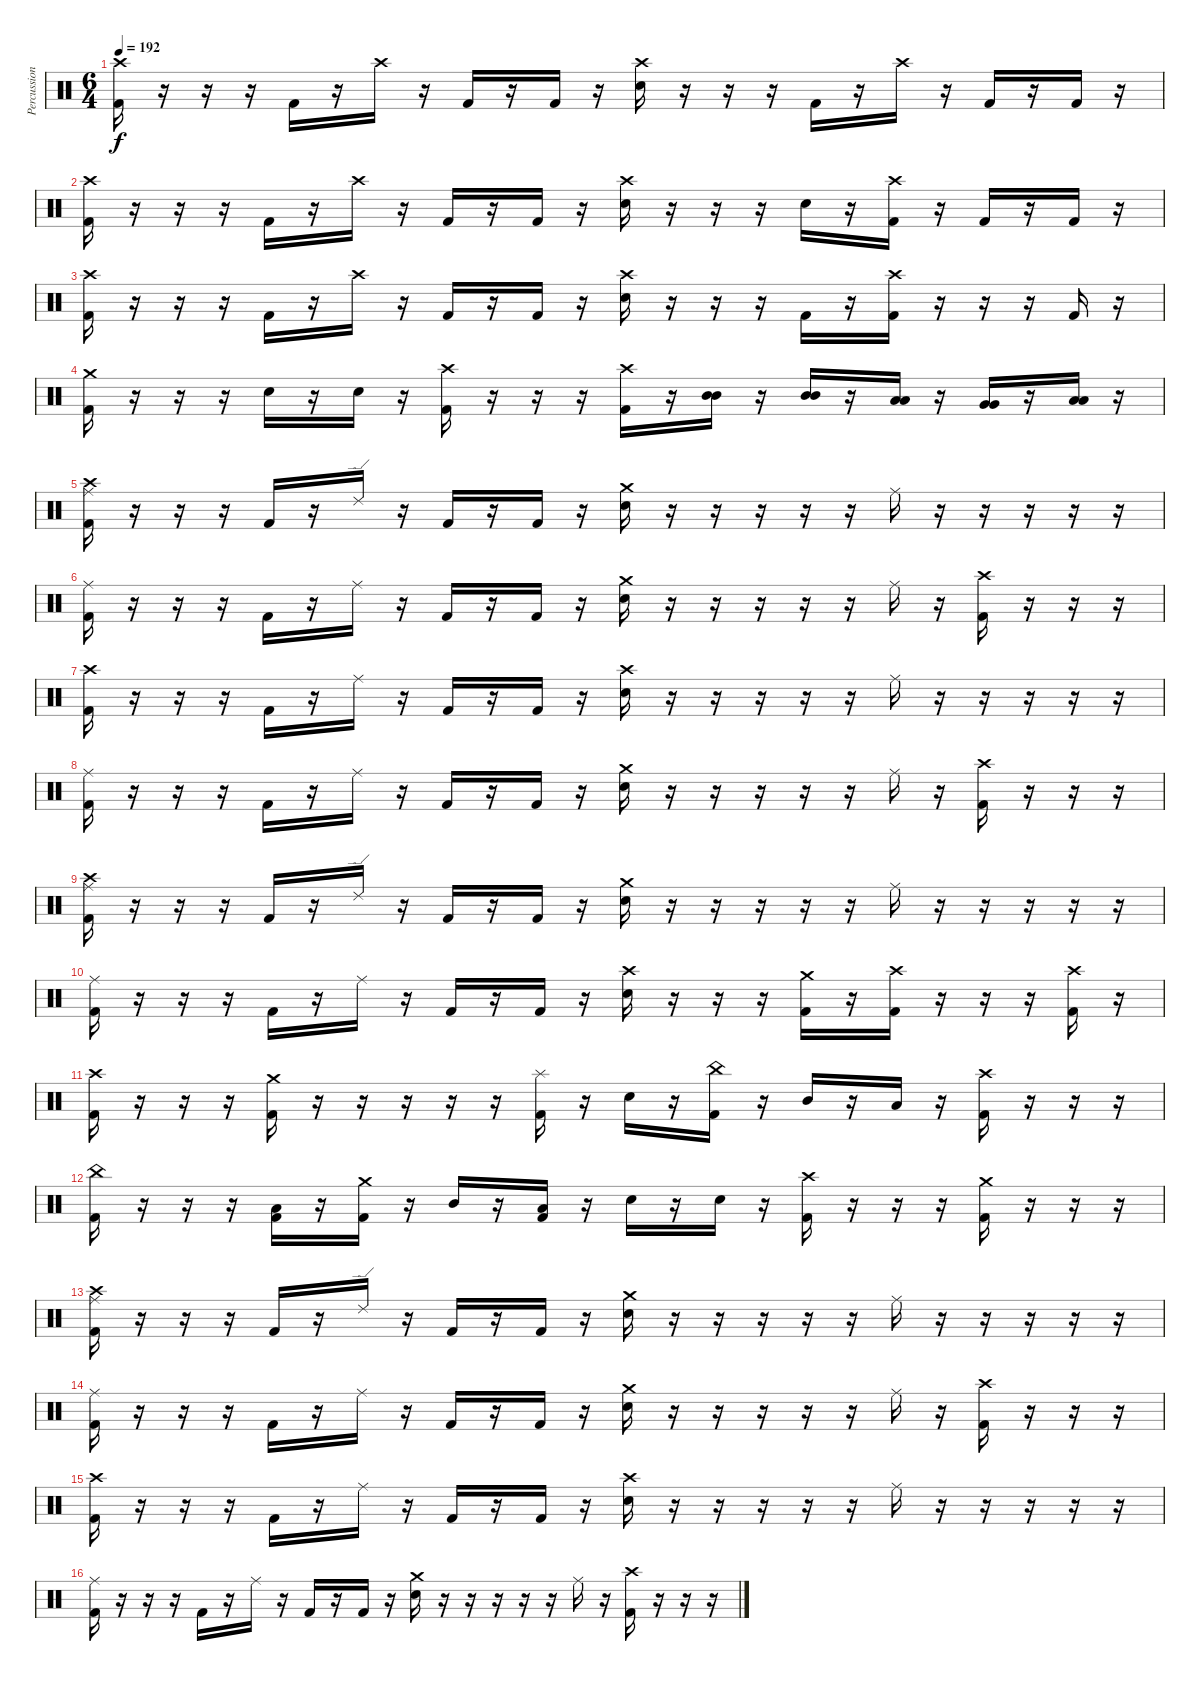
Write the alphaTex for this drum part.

\track ("Percussion" "Percussion") {instrument percussion}
\staff {score}
\articulation defaults
\ts (6 4)
\tempo 192
\clef neutral
\ks c
("Crash high (hit)" "Kick (hit) 2").16{dy f} r.16 r.16 r.16 "Kick (hit) 2".16 r.16 "Crash high (hit)".16 r.16 "Kick (hit) 2".16 r.16 "Kick (hit) 2".16 r.16 ("Crash high (hit)" "Snare (hit) 2").16 r.16 r.16 r.16 "Kick (hit) 2".16 r.16 "Crash high (hit)".16 r.16 "Kick (hit) 2".16 r.16 "Kick (hit) 2".16 r.16 |
("Crash high (hit)" "Kick (hit) 2").16 r.16 r.16 r.16 "Kick (hit) 2".16 r.16 "Crash high (hit)".16 r.16 "Kick (hit) 2".16 r.16 "Kick (hit) 2".16 r.16 ("Crash high (hit)" "Snare (hit) 2").16 r.16 r.16 r.16 "Snare (hit) 2".16 r.16 ("Crash high (hit)" "Kick (hit) 2").16 r.16 "Kick (hit) 2".16 r.16 "Kick (hit) 2".16 r.16 |
("Crash high (hit)" "Kick (hit) 2").16 r.16 r.16 r.16 "Kick (hit) 2".16 r.16 "Crash high (hit)".16 r.16 "Kick (hit) 2".16 r.16 "Kick (hit) 2".16 r.16 ("Crash high (hit)" "Snare (hit) 2").16 r.16 r.16 r.16 "Kick (hit) 2".16 r.16 ("Crash high (hit)" "Kick (hit) 2").16 r.16 r.16 r.16 "Kick (hit) 2".16 r.16 |
("Crash medium (hit)" "Kick (hit) 2").16 r.16 r.16 r.16 "Snare (hit) 2".16 r.16 "Snare (hit) 2".16 r.16 ("Crash high (hit)" "Kick (hit) 2").16 r.16 r.16 r.16 ("Crash high (hit)" "Kick (hit) 2").16 r.16 ("Mid Tom (hit)" "Mid Tom (hit)").16 r.16 ("Mid Tom (hit)" "Mid Tom (hit)").16 r.16 ("Low Tom (hit)" "Low Tom (hit)").16 r.16 ("Very Low Tom (hit)" "Very Low Tom (hit)").16 r.16 ("Low Floor Tom (hit)" "Low Floor Tom (hit)").16 r.16 |
("Crash high (hit)" "Ride (middle)" "Kick (hit) 2").16 r.16 r.16 r.16 "Kick (hit) 2".16 r.16 "Ride (edge) 2".16 r.16 "Kick (hit) 2".16 r.16 "Kick (hit) 2".16 r.16 ("Crash medium (hit)" "Snare (hit) 2").16 r.16 r.16 r.16 r.16 r.16 "Ride (middle)".16 r.16 r.16 r.16 r.16 r.16 |
("Ride (middle)" "Kick (hit) 2").16 r.16 r.16 r.16 "Kick (hit) 2".16 r.16 "Ride (middle)".16 r.16 "Kick (hit) 2".16 r.16 "Kick (hit) 2".16 r.16 ("Crash medium (hit)" "Snare (hit) 2").16 r.16 r.16 r.16 r.16 r.16 "Ride (middle)".16 r.16 ("Crash high (hit)" "Kick (hit) 2").16 r.16 r.16 r.16 |
("Crash high (hit)" "Kick (hit) 2").16 r.16 r.16 r.16 "Kick (hit) 2".16 r.16 "Ride (middle)".16 r.16 "Kick (hit) 2".16 r.16 "Kick (hit) 2".16 r.16 ("Crash high (hit)" "Snare (hit) 2").16 r.16 r.16 r.16 r.16 r.16 "Ride (middle)".16 r.16 r.16 r.16 r.16 r.16 |
("Ride (middle)" "Kick (hit) 2").16 r.16 r.16 r.16 "Kick (hit) 2".16 r.16 "Ride (middle)".16 r.16 "Kick (hit) 2".16 r.16 "Kick (hit) 2".16 r.16 ("Crash medium (hit)" "Snare (hit) 2").16 r.16 r.16 r.16 r.16 r.16 "Ride (middle)".16 r.16 ("Crash high (hit)" "Kick (hit) 2").16 r.16 r.16 r.16 |
("Crash high (hit)" "Ride (middle)" "Kick (hit) 2").16 r.16 r.16 r.16 "Kick (hit) 2".16 r.16 "Ride (edge) 2".16 r.16 "Kick (hit) 2".16 r.16 "Kick (hit) 2".16 r.16 ("Crash medium (hit)" "Snare (hit) 2").16 r.16 r.16 r.16 r.16 r.16 "Ride (middle)".16 r.16 r.16 r.16 r.16 r.16 |
("Ride (middle)" "Kick (hit) 2").16 r.16 r.16 r.16 "Kick (hit) 2".16 r.16 "Ride (middle)".16 r.16 "Kick (hit) 2".16 r.16 "Kick (hit) 2".16 r.16 ("Crash high (hit)" "Snare (hit) 2").16 r.16 r.16 r.16 ("Crash medium (hit)" "Kick (hit) 2").16 r.16 ("Crash high (hit)" "Kick (hit) 2").16 r.16 r.16 r.16 ("Crash high (hit)" "Kick (hit) 2").16 r.16 |
("Crash high (hit)" "Kick (hit) 2").16 r.16 r.16 r.16 ("Crash medium (hit)" "Kick (hit) 2").16 r.16 r.16 r.16 r.16 r.16 ("Splash (hit)" "Kick (hit) 2").16 r.16 "Snare (hit) 2".16 r.16 ("China (hit)" "Kick (hit) 2").16 r.16 "Mid Tom (hit)".16 r.16 "Low Tom (hit)".16 r.16 ("Crash high (hit)" "Kick (hit) 2").16 r.16 r.16 r.16 |
("China (hit)" "Kick (hit) 2").16 r.16 r.16 r.16 ("Low Tom (hit)" "Kick (hit) 2").16 r.16 ("Crash medium (hit)" "Kick (hit) 2").16 r.16 "Mid Tom (hit)".16 r.16 ("Low Tom (hit)" "Kick (hit) 2").16 r.16 "Snare (hit) 2".16 r.16 "Snare (hit) 2".16 r.16 ("Crash high (hit)" "Kick (hit) 2").16 r.16 r.16 r.16 ("Crash medium (hit)" "Kick (hit) 2").16 r.16 r.16 r.16 |
("Crash high (hit)" "Ride (middle)" "Kick (hit) 2").16 r.16 r.16 r.16 "Kick (hit) 2".16 r.16 "Ride (edge) 2".16 r.16 "Kick (hit) 2".16 r.16 "Kick (hit) 2".16 r.16 ("Crash medium (hit)" "Snare (hit) 2").16 r.16 r.16 r.16 r.16 r.16 "Ride (middle)".16 r.16 r.16 r.16 r.16 r.16 |
("Ride (middle)" "Kick (hit) 2").16 r.16 r.16 r.16 "Kick (hit) 2".16 r.16 "Ride (middle)".16 r.16 "Kick (hit) 2".16 r.16 "Kick (hit) 2".16 r.16 ("Crash medium (hit)" "Snare (hit) 2").16 r.16 r.16 r.16 r.16 r.16 "Ride (middle)".16 r.16 ("Crash high (hit)" "Kick (hit) 2").16 r.16 r.16 r.16 |
("Crash high (hit)" "Kick (hit) 2").16 r.16 r.16 r.16 "Kick (hit) 2".16 r.16 "Ride (middle)".16 r.16 "Kick (hit) 2".16 r.16 "Kick (hit) 2".16 r.16 ("Crash high (hit)" "Snare (hit) 2").16 r.16 r.16 r.16 r.16 r.16 "Ride (middle)".16 r.16 r.16 r.16 r.16 r.16 |
("Ride (middle)" "Kick (hit) 2").16 r.16 r.16 r.16 "Kick (hit) 2".16 r.16 "Ride (middle)".16 r.16 "Kick (hit) 2".16 r.16 "Kick (hit) 2".16 r.16 ("Crash medium (hit)" "Snare (hit) 2").16 r.16 r.16 r.16 r.16 r.16 "Ride (middle)".16 r.16 ("Crash high (hit)" "Kick (hit) 2").16 r.16 r.16 r.16
